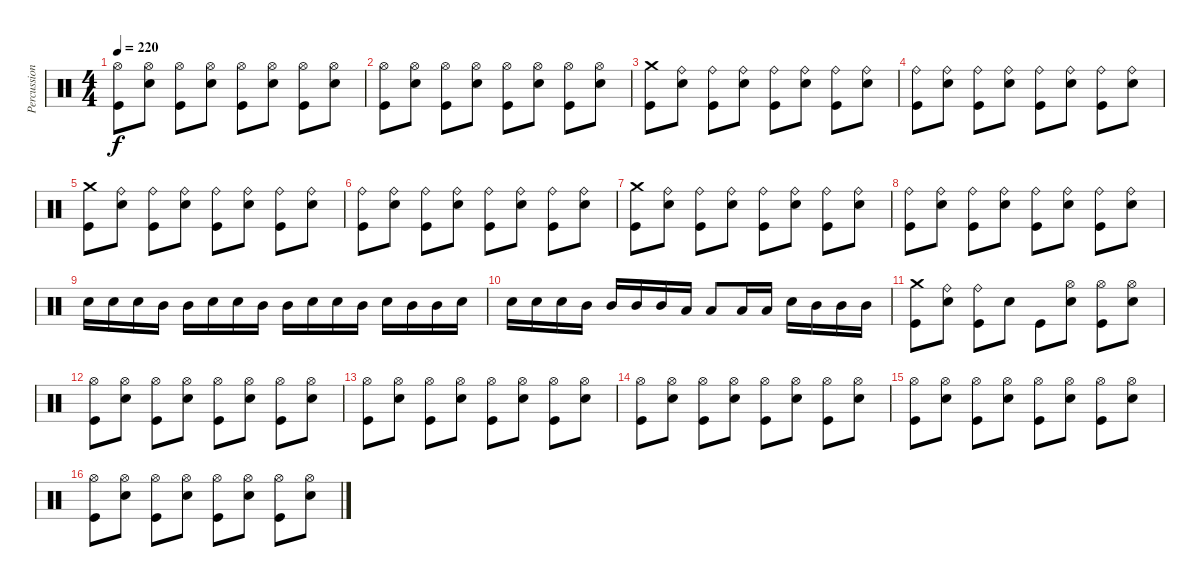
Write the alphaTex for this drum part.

\track ("Percussions" "Percussion") {instrument percussion}
\staff {score}
\articulation defaults
\ts (4 4)
\tempo 220
\clef neutral
\ks c
("Kick (hit)" "Hi-Hat (open)").8{dy f} ("Electric Snare (hit)" "Hi-Hat (open)").8 ("Kick (hit)" "Hi-Hat (open)").8 ("Electric Snare (hit)" "Hi-Hat (open)").8 ("Kick (hit)" "Hi-Hat (open)").8 ("Electric Snare (hit)" "Hi-Hat (open)").8 ("Kick (hit)" "Hi-Hat (open)").8 ("Electric Snare (hit)" "Hi-Hat (open)").8 |
("Kick (hit)" "Hi-Hat (open)").8 ("Electric Snare (hit)" "Hi-Hat (open)").8 ("Kick (hit)" "Hi-Hat (open)").8 ("Electric Snare (hit)" "Hi-Hat (open)").8 ("Kick (hit)" "Hi-Hat (open)").8 ("Electric Snare (hit)" "Hi-Hat (open)").8 ("Kick (hit)" "Hi-Hat (open)").8 ("Electric Snare (hit)" "Hi-Hat (open)").8 |
("Kick (hit)" "Crash medium (hit)").8 ("Electric Snare (hit)" "Ride (bell)").8 ("Kick (hit)" "Ride (bell)").8 ("Electric Snare (hit)" "Ride (bell)").8 ("Kick (hit)" "Ride (bell)").8 ("Electric Snare (hit)" "Ride (bell)").8 ("Kick (hit)" "Ride (bell)").8 ("Electric Snare (hit)" "Ride (bell)").8 |
("Kick (hit)" "Ride (bell)").8 ("Electric Snare (hit)" "Ride (bell)").8 ("Kick (hit)" "Ride (bell)").8 ("Electric Snare (hit)" "Ride (bell)").8 ("Kick (hit)" "Ride (bell)").8 ("Electric Snare (hit)" "Ride (bell)").8 ("Kick (hit)" "Ride (bell)").8 ("Electric Snare (hit)" "Ride (bell)").8 |
("Kick (hit)" "Crash medium (hit)").8 ("Electric Snare (hit)" "Ride (bell)").8 ("Kick (hit)" "Ride (bell)").8 ("Electric Snare (hit)" "Ride (bell)").8 ("Kick (hit)" "Ride (bell)").8 ("Electric Snare (hit)" "Ride (bell)").8 ("Kick (hit)" "Ride (bell)").8 ("Electric Snare (hit)" "Ride (bell)").8 |
("Kick (hit)" "Ride (bell)").8 ("Electric Snare (hit)" "Ride (bell)").8 ("Kick (hit)" "Ride (bell)").8 ("Electric Snare (hit)" "Ride (bell)").8 ("Kick (hit)" "Ride (bell)").8 ("Electric Snare (hit)" "Ride (bell)").8 ("Kick (hit)" "Ride (bell)").8 ("Electric Snare (hit)" "Ride (bell)").8 |
("Kick (hit)" "Crash medium (hit)").8 ("Electric Snare (hit)" "Ride (bell)").8 ("Kick (hit)" "Ride (bell)").8 ("Electric Snare (hit)" "Ride (bell)").8 ("Kick (hit)" "Ride (bell)").8 ("Electric Snare (hit)" "Ride (bell)").8 ("Kick (hit)" "Ride (bell)").8 ("Electric Snare (hit)" "Ride (bell)").8 |
("Kick (hit)" "Ride (bell)").8 ("Electric Snare (hit)" "Ride (bell)").8 ("Kick (hit)" "Ride (bell)").8 ("Electric Snare (hit)" "Ride (bell)").8 ("Kick (hit)" "Ride (bell)").8 ("Electric Snare (hit)" "Ride (bell)").8 ("Kick (hit)" "Ride (bell)").8 ("Electric Snare (hit)" "Ride (bell)").8 |
"Electric Snare (hit)".16 "Electric Snare (hit)".16 "Electric Snare (hit)".16 "Mid Tom (hit)".16 "Mid Tom (hit)".16 "Electric Snare (hit)".16 "Electric Snare (hit)".16 "Mid Tom (hit)".16 "Mid Tom (hit)".16 "Electric Snare (hit)".16 "Electric Snare (hit)".16 "Mid Tom (hit)".16 "Electric Snare (hit)".16 "Mid Tom (hit)".16 "Mid Tom (hit)".16 "Electric Snare (hit)".16 |
"Electric Snare (hit)".16 "Electric Snare (hit)".16 "Electric Snare (hit)".16 "Mid Tom (hit)".16 "Mid Tom (hit)".16 "Mid Tom (hit)".16 "Mid Tom (hit)".16 "Low Tom (hit)".16 "Low Tom (hit)".8 "Low Tom (hit)".16 "Low Tom (hit)".16 "Electric Snare (hit)".16 "Mid Tom (hit)".16 "Mid Tom (hit)".16 "Mid Tom (hit)".16 |
("Kick (hit)" "Crash medium (hit)").8 ("Electric Snare (hit)" "Ride (bell)").8 ("Kick (hit)" "Ride (bell)").8 "Electric Snare (hit)".8 "Kick (hit)".8 ("Electric Snare (hit)" "Hi-Hat (open)").8 ("Kick (hit)" "Hi-Hat (open)").8 ("Electric Snare (hit)" "Hi-Hat (open)").8 |
("Kick (hit)" "Hi-Hat (open)").8 ("Electric Snare (hit)" "Hi-Hat (open)").8 ("Kick (hit)" "Hi-Hat (open)").8 ("Electric Snare (hit)" "Hi-Hat (open)").8 ("Kick (hit)" "Hi-Hat (open)").8 ("Electric Snare (hit)" "Hi-Hat (open)").8 ("Kick (hit)" "Hi-Hat (open)").8 ("Electric Snare (hit)" "Hi-Hat (open)").8 |
("Kick (hit)" "Hi-Hat (open)").8 ("Electric Snare (hit)" "Hi-Hat (open)").8 ("Kick (hit)" "Hi-Hat (open)").8 ("Electric Snare (hit)" "Hi-Hat (open)").8 ("Kick (hit)" "Hi-Hat (open)").8 ("Electric Snare (hit)" "Hi-Hat (open)").8 ("Kick (hit)" "Hi-Hat (open)").8 ("Electric Snare (hit)" "Hi-Hat (open)").8 |
("Kick (hit)" "Hi-Hat (open)").8 ("Electric Snare (hit)" "Hi-Hat (open)").8 ("Kick (hit)" "Hi-Hat (open)").8 ("Electric Snare (hit)" "Hi-Hat (open)").8 ("Kick (hit)" "Hi-Hat (open)").8 ("Electric Snare (hit)" "Hi-Hat (open)").8 ("Kick (hit)" "Hi-Hat (open)").8 ("Electric Snare (hit)" "Hi-Hat (open)").8 |
("Kick (hit)" "Hi-Hat (open)").8 ("Electric Snare (hit)" "Hi-Hat (open)").8 ("Kick (hit)" "Hi-Hat (open)").8 ("Electric Snare (hit)" "Hi-Hat (open)").8 ("Kick (hit)" "Hi-Hat (open)").8 ("Electric Snare (hit)" "Hi-Hat (open)").8 ("Kick (hit)" "Hi-Hat (open)").8 ("Electric Snare (hit)" "Hi-Hat (open)").8 |
("Kick (hit)" "Hi-Hat (open)").8 ("Electric Snare (hit)" "Hi-Hat (open)").8 ("Kick (hit)" "Hi-Hat (open)").8 ("Electric Snare (hit)" "Hi-Hat (open)").8 ("Kick (hit)" "Hi-Hat (open)").8 ("Electric Snare (hit)" "Hi-Hat (open)").8 ("Kick (hit)" "Hi-Hat (open)").8 ("Electric Snare (hit)" "Hi-Hat (open)").8
